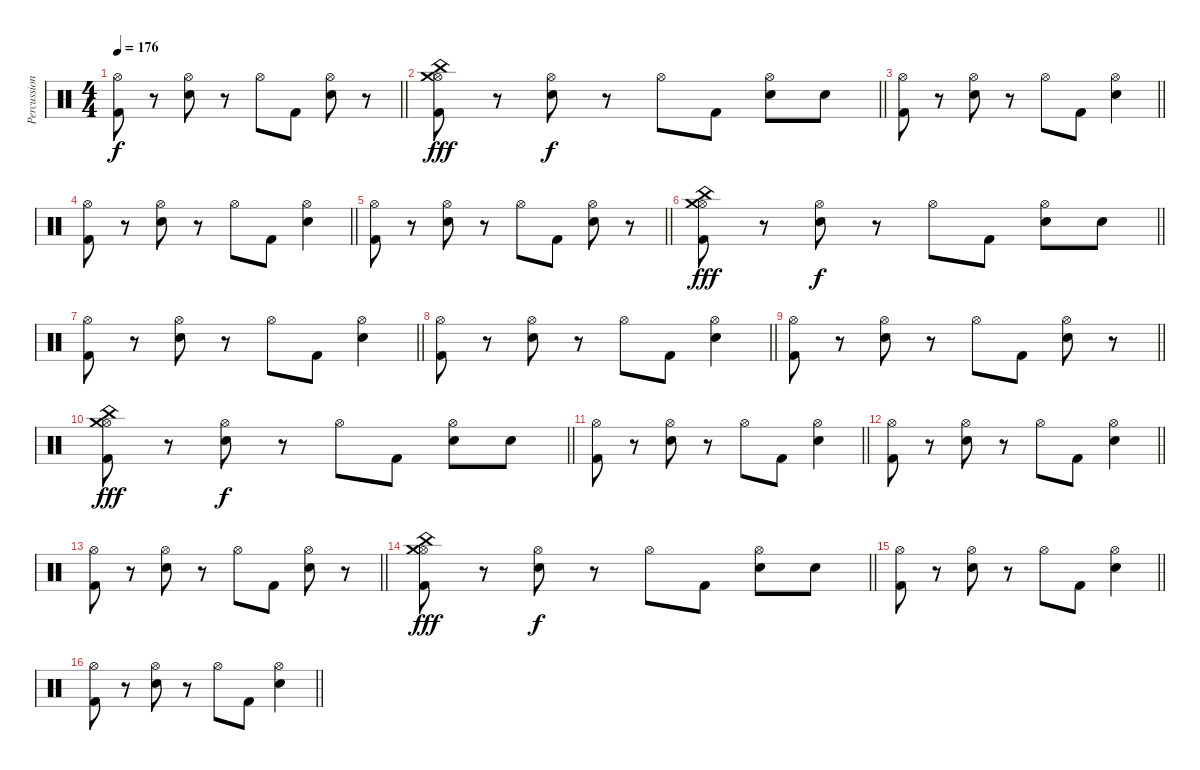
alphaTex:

\track ("Percussions" "Percussion") {instrument percussion}
\staff {score}
\articulation defaults
\ts (4 4)
\tempo 176
\clef neutral
\barLineRight lightlight
\ks c
("Hi-Hat (open)" "Kick (hit) 2").8{dy f} r.8 ("Hi-Hat (open)" "Snare (hit) 2").8 r.8 "Hi-Hat (open)".8 "Kick (hit) 2".8 ("Hi-Hat (open)" "Snare (hit) 2").8 r.8 |
\barLineRight lightlight
("Hi-Hat (open)" "Kick (hit) 2" "Crash medium (hit)" "China (hit)").8{dy fff} r.8 ("Hi-Hat (open)" "Snare (hit) 2").8{dy f} r.8 "Hi-Hat (open)".8 "Kick (hit) 2".8 ("Hi-Hat (open)" "Snare (hit) 2").8 "Snare (hit) 2".8 |
\barLineRight lightlight
("Hi-Hat (open)" "Kick (hit) 2").8 r.8 ("Hi-Hat (open)" "Snare (hit) 2").8 r.8 "Hi-Hat (open)".8 "Kick (hit) 2".8 ("Hi-Hat (open)" "Snare (hit) 2").4 |
\barLineRight lightlight
("Hi-Hat (open)" "Kick (hit) 2").8 r.8 ("Hi-Hat (open)" "Snare (hit) 2").8 r.8 "Hi-Hat (open)".8 "Kick (hit) 2".8 ("Hi-Hat (open)" "Snare (hit) 2").4 |
\barLineRight lightlight
("Hi-Hat (open)" "Kick (hit) 2").8 r.8 ("Hi-Hat (open)" "Snare (hit) 2").8 r.8 "Hi-Hat (open)".8 "Kick (hit) 2".8 ("Hi-Hat (open)" "Snare (hit) 2").8 r.8 |
\barLineRight lightlight
("Hi-Hat (open)" "Kick (hit) 2" "Crash medium (hit)" "China (hit)").8{dy fff} r.8 ("Hi-Hat (open)" "Snare (hit) 2").8{dy f} r.8 "Hi-Hat (open)".8 "Kick (hit) 2".8 ("Hi-Hat (open)" "Snare (hit) 2").8 "Snare (hit) 2".8 |
\barLineRight lightlight
("Hi-Hat (open)" "Kick (hit) 2").8 r.8 ("Hi-Hat (open)" "Snare (hit) 2").8 r.8 "Hi-Hat (open)".8 "Kick (hit) 2".8 ("Hi-Hat (open)" "Snare (hit) 2").4 |
\barLineRight lightlight
("Hi-Hat (open)" "Kick (hit) 2").8 r.8 ("Hi-Hat (open)" "Snare (hit) 2").8 r.8 "Hi-Hat (open)".8 "Kick (hit) 2".8 ("Hi-Hat (open)" "Snare (hit) 2").4 |
\barLineRight lightlight
("Hi-Hat (open)" "Kick (hit) 2").8 r.8 ("Hi-Hat (open)" "Snare (hit) 2").8 r.8 "Hi-Hat (open)".8 "Kick (hit) 2".8 ("Hi-Hat (open)" "Snare (hit) 2").8 r.8 |
\barLineRight lightlight
("Hi-Hat (open)" "Kick (hit) 2" "Crash medium (hit)" "China (hit)").8{dy fff} r.8 ("Hi-Hat (open)" "Snare (hit) 2").8{dy f} r.8 "Hi-Hat (open)".8 "Kick (hit) 2".8 ("Hi-Hat (open)" "Snare (hit) 2").8 "Snare (hit) 2".8 |
\barLineRight lightlight
("Hi-Hat (open)" "Kick (hit) 2").8 r.8 ("Hi-Hat (open)" "Snare (hit) 2").8 r.8 "Hi-Hat (open)".8 "Kick (hit) 2".8 ("Hi-Hat (open)" "Snare (hit) 2").4 |
\barLineRight lightlight
("Hi-Hat (open)" "Kick (hit) 2").8 r.8 ("Hi-Hat (open)" "Snare (hit) 2").8 r.8 "Hi-Hat (open)".8 "Kick (hit) 2".8 ("Hi-Hat (open)" "Snare (hit) 2").4 |
\barLineRight lightlight
("Hi-Hat (open)" "Kick (hit) 2").8 r.8 ("Hi-Hat (open)" "Snare (hit) 2").8 r.8 "Hi-Hat (open)".8 "Kick (hit) 2".8 ("Hi-Hat (open)" "Snare (hit) 2").8 r.8 |
\barLineRight lightlight
("Hi-Hat (open)" "Kick (hit) 2" "Crash medium (hit)" "China (hit)").8{dy fff} r.8 ("Hi-Hat (open)" "Snare (hit) 2").8{dy f} r.8 "Hi-Hat (open)".8 "Kick (hit) 2".8 ("Hi-Hat (open)" "Snare (hit) 2").8 "Snare (hit) 2".8 |
\barLineRight lightlight
("Hi-Hat (open)" "Kick (hit) 2").8 r.8 ("Hi-Hat (open)" "Snare (hit) 2").8 r.8 "Hi-Hat (open)".8 "Kick (hit) 2".8 ("Hi-Hat (open)" "Snare (hit) 2").4 |
\barLineRight lightlight
("Hi-Hat (open)" "Kick (hit) 2").8 r.8 ("Hi-Hat (open)" "Snare (hit) 2").8 r.8 "Hi-Hat (open)".8 "Kick (hit) 2".8 ("Hi-Hat (open)" "Snare (hit) 2").4
